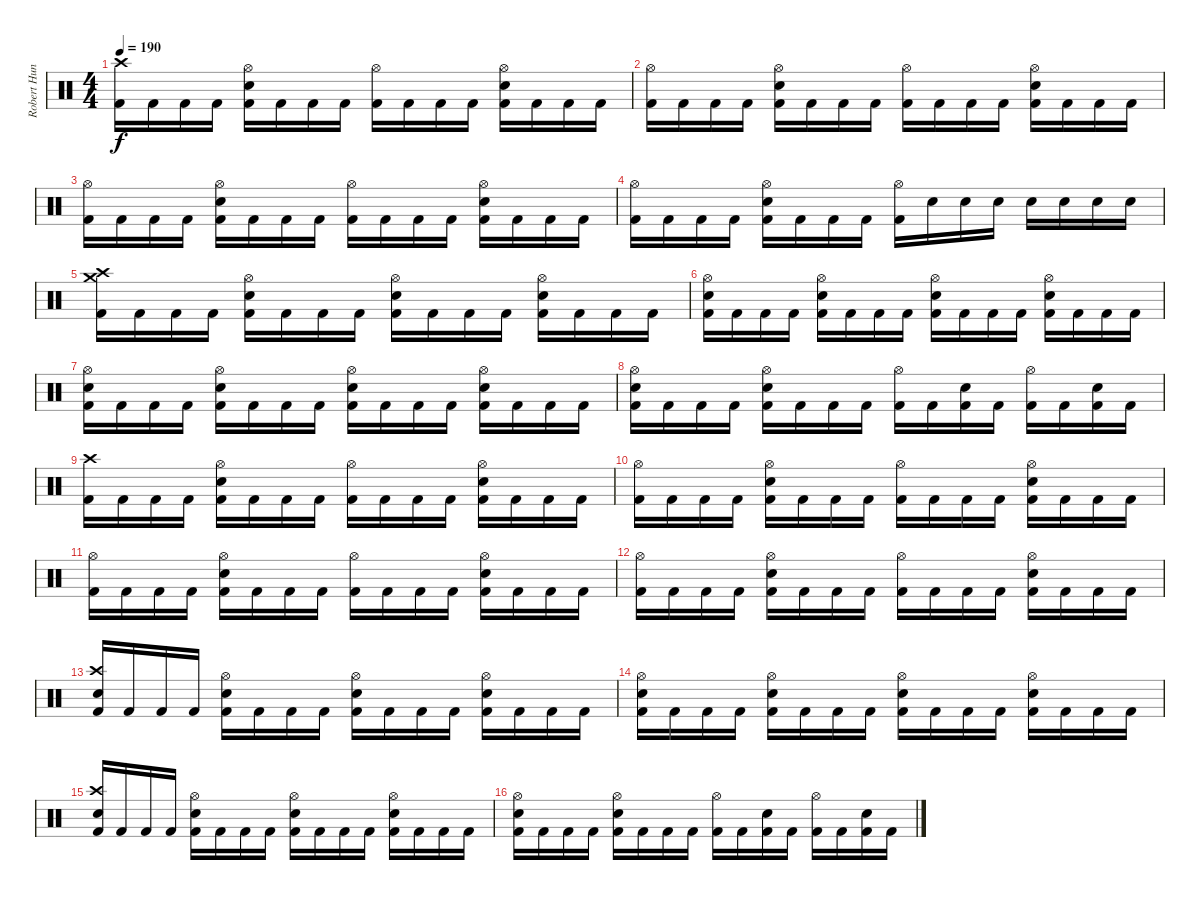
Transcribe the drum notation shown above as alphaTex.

\track ("Robert Hunecke" "Robert Hun") {instrument percussion}
\staff {score}
\articulation defaults
\ts (4 4)
\tempo 190
\clef neutral
\ks c
("Kick (hit) 2" "Crash high (hit)").16{dy f} "Kick (hit) 2".16 "Kick (hit) 2".16 "Kick (hit) 2".16 ("Kick (hit) 2" "Electric Snare (hit)" "Hi-Hat (open)").16 "Kick (hit) 2".16 "Kick (hit) 2".16 "Kick (hit) 2".16 ("Kick (hit) 2" "Hi-Hat (open)").16 "Kick (hit) 2".16 "Kick (hit) 2".16 "Kick (hit) 2".16 ("Kick (hit) 2" "Electric Snare (hit)" "Hi-Hat (open)").16 "Kick (hit) 2".16 "Kick (hit) 2".16 "Kick (hit) 2".16 |
("Kick (hit) 2" "Hi-Hat (open)").16 "Kick (hit) 2".16 "Kick (hit) 2".16 "Kick (hit) 2".16 ("Kick (hit) 2" "Electric Snare (hit)" "Hi-Hat (open)").16 "Kick (hit) 2".16 "Kick (hit) 2".16 "Kick (hit) 2".16 ("Kick (hit) 2" "Hi-Hat (open)").16 "Kick (hit) 2".16 "Kick (hit) 2".16 "Kick (hit) 2".16 ("Kick (hit) 2" "Electric Snare (hit)" "Hi-Hat (open)").16 "Kick (hit) 2".16 "Kick (hit) 2".16 "Kick (hit) 2".16 |
("Kick (hit) 2" "Hi-Hat (open)").16 "Kick (hit) 2".16 "Kick (hit) 2".16 "Kick (hit) 2".16 ("Kick (hit) 2" "Electric Snare (hit)" "Hi-Hat (open)").16 "Kick (hit) 2".16 "Kick (hit) 2".16 "Kick (hit) 2".16 ("Kick (hit) 2" "Hi-Hat (open)").16 "Kick (hit) 2".16 "Kick (hit) 2".16 "Kick (hit) 2".16 ("Kick (hit) 2" "Electric Snare (hit)" "Hi-Hat (open)").16 "Kick (hit) 2".16 "Kick (hit) 2".16 "Kick (hit) 2".16 |
("Kick (hit) 2" "Hi-Hat (open)").16 "Kick (hit) 2".16 "Kick (hit) 2".16 "Kick (hit) 2".16 ("Kick (hit) 2" "Electric Snare (hit)" "Hi-Hat (open)").16 "Kick (hit) 2".16 "Kick (hit) 2".16 "Kick (hit) 2".16 ("Kick (hit) 2" "Hi-Hat (open)").16 "Electric Snare (hit)".16 "Electric Snare (hit)".16 "Electric Snare (hit)".16 "Electric Snare (hit)".16 "Electric Snare (hit)".16 "Electric Snare (hit)".16 "Electric Snare (hit)".16 |
("Kick (hit) 2" "Crash high (hit)" "Crash medium (hit)").16 "Kick (hit) 2".16 "Kick (hit) 2".16 "Kick (hit) 2".16 ("Kick (hit) 2" "Electric Snare (hit)" "Hi-Hat (open)").16 "Kick (hit) 2".16 "Kick (hit) 2".16 "Kick (hit) 2".16 ("Kick (hit) 2" "Electric Snare (hit)" "Hi-Hat (open)").16 "Kick (hit) 2".16 "Kick (hit) 2".16 "Kick (hit) 2".16 ("Kick (hit) 2" "Electric Snare (hit)" "Hi-Hat (open)").16 "Kick (hit) 2".16 "Kick (hit) 2".16 "Kick (hit) 2".16 |
("Kick (hit) 2" "Electric Snare (hit)" "Hi-Hat (open)").16 "Kick (hit) 2".16 "Kick (hit) 2".16 "Kick (hit) 2".16 ("Kick (hit) 2" "Electric Snare (hit)" "Hi-Hat (open)").16 "Kick (hit) 2".16 "Kick (hit) 2".16 "Kick (hit) 2".16 ("Kick (hit) 2" "Electric Snare (hit)" "Hi-Hat (open)").16 "Kick (hit) 2".16 "Kick (hit) 2".16 "Kick (hit) 2".16 ("Kick (hit) 2" "Electric Snare (hit)" "Hi-Hat (open)").16 "Kick (hit) 2".16 "Kick (hit) 2".16 "Kick (hit) 2".16 |
("Kick (hit) 2" "Electric Snare (hit)" "Hi-Hat (open)").16 "Kick (hit) 2".16 "Kick (hit) 2".16 "Kick (hit) 2".16 ("Kick (hit) 2" "Electric Snare (hit)" "Hi-Hat (open)").16 "Kick (hit) 2".16 "Kick (hit) 2".16 "Kick (hit) 2".16 ("Kick (hit) 2" "Electric Snare (hit)" "Hi-Hat (open)").16 "Kick (hit) 2".16 "Kick (hit) 2".16 "Kick (hit) 2".16 ("Kick (hit) 2" "Electric Snare (hit)" "Hi-Hat (open)").16 "Kick (hit) 2".16 "Kick (hit) 2".16 "Kick (hit) 2".16 |
("Kick (hit) 2" "Electric Snare (hit)" "Hi-Hat (open)").16 "Kick (hit) 2".16 "Kick (hit) 2".16 "Kick (hit) 2".16 ("Kick (hit) 2" "Electric Snare (hit)" "Hi-Hat (open)").16 "Kick (hit) 2".16 "Kick (hit) 2".16 "Kick (hit) 2".16 ("Kick (hit) 2" "Hi-Hat (open)").16 "Kick (hit) 2".16 ("Kick (hit) 2" "Electric Snare (hit)").16 "Kick (hit) 2".16 ("Kick (hit) 2" "Hi-Hat (open)").16 "Kick (hit) 2".16 ("Kick (hit) 2" "Electric Snare (hit)").16 "Kick (hit) 2".16 |
("Kick (hit) 2" "Crash high (hit)").16 "Kick (hit) 2".16 "Kick (hit) 2".16 "Kick (hit) 2".16 ("Kick (hit) 2" "Electric Snare (hit)" "Hi-Hat (open)").16 "Kick (hit) 2".16 "Kick (hit) 2".16 "Kick (hit) 2".16 ("Kick (hit) 2" "Hi-Hat (open)").16 "Kick (hit) 2".16 "Kick (hit) 2".16 "Kick (hit) 2".16 ("Kick (hit) 2" "Electric Snare (hit)" "Hi-Hat (open)").16 "Kick (hit) 2".16 "Kick (hit) 2".16 "Kick (hit) 2".16 |
("Kick (hit) 2" "Hi-Hat (open)").16 "Kick (hit) 2".16 "Kick (hit) 2".16 "Kick (hit) 2".16 ("Kick (hit) 2" "Electric Snare (hit)" "Hi-Hat (open)").16 "Kick (hit) 2".16 "Kick (hit) 2".16 "Kick (hit) 2".16 ("Kick (hit) 2" "Hi-Hat (open)").16 "Kick (hit) 2".16 "Kick (hit) 2".16 "Kick (hit) 2".16 ("Kick (hit) 2" "Electric Snare (hit)" "Hi-Hat (open)").16 "Kick (hit) 2".16 "Kick (hit) 2".16 "Kick (hit) 2".16 |
("Kick (hit) 2" "Hi-Hat (open)").16 "Kick (hit) 2".16 "Kick (hit) 2".16 "Kick (hit) 2".16 ("Kick (hit) 2" "Electric Snare (hit)" "Hi-Hat (open)").16 "Kick (hit) 2".16 "Kick (hit) 2".16 "Kick (hit) 2".16 ("Kick (hit) 2" "Hi-Hat (open)").16 "Kick (hit) 2".16 "Kick (hit) 2".16 "Kick (hit) 2".16 ("Kick (hit) 2" "Electric Snare (hit)" "Hi-Hat (open)").16 "Kick (hit) 2".16 "Kick (hit) 2".16 "Kick (hit) 2".16 |
("Kick (hit) 2" "Hi-Hat (open)").16 "Kick (hit) 2".16 "Kick (hit) 2".16 "Kick (hit) 2".16 ("Kick (hit) 2" "Electric Snare (hit)" "Hi-Hat (open)").16 "Kick (hit) 2".16 "Kick (hit) 2".16 "Kick (hit) 2".16 ("Kick (hit) 2" "Hi-Hat (open)").16 "Kick (hit) 2".16 "Kick (hit) 2".16 "Kick (hit) 2".16 ("Kick (hit) 2" "Electric Snare (hit)" "Hi-Hat (open)").16 "Kick (hit) 2".16 "Kick (hit) 2".16 "Kick (hit) 2".16 |
("Kick (hit) 2" "Electric Snare (hit)" "Crash high (hit)").16 "Kick (hit) 2".16 "Kick (hit) 2".16 "Kick (hit) 2".16 ("Kick (hit) 2" "Electric Snare (hit)" "Hi-Hat (open)").16 "Kick (hit) 2".16 "Kick (hit) 2".16 "Kick (hit) 2".16 ("Kick (hit) 2" "Electric Snare (hit)" "Hi-Hat (open)").16 "Kick (hit) 2".16 "Kick (hit) 2".16 "Kick (hit) 2".16 ("Kick (hit) 2" "Electric Snare (hit)" "Hi-Hat (open)").16 "Kick (hit) 2".16 "Kick (hit) 2".16 "Kick (hit) 2".16 |
("Kick (hit) 2" "Electric Snare (hit)" "Hi-Hat (open)").16 "Kick (hit) 2".16 "Kick (hit) 2".16 "Kick (hit) 2".16 ("Kick (hit) 2" "Electric Snare (hit)" "Hi-Hat (open)").16 "Kick (hit) 2".16 "Kick (hit) 2".16 "Kick (hit) 2".16 ("Kick (hit) 2" "Electric Snare (hit)" "Hi-Hat (open)").16 "Kick (hit) 2".16 "Kick (hit) 2".16 "Kick (hit) 2".16 ("Kick (hit) 2" "Electric Snare (hit)" "Hi-Hat (open)").16 "Kick (hit) 2".16 "Kick (hit) 2".16 "Kick (hit) 2".16 |
("Kick (hit) 2" "Electric Snare (hit)" "Crash high (hit)").16 "Kick (hit) 2".16 "Kick (hit) 2".16 "Kick (hit) 2".16 ("Kick (hit) 2" "Electric Snare (hit)" "Hi-Hat (open)").16 "Kick (hit) 2".16 "Kick (hit) 2".16 "Kick (hit) 2".16 ("Kick (hit) 2" "Electric Snare (hit)" "Hi-Hat (open)").16 "Kick (hit) 2".16 "Kick (hit) 2".16 "Kick (hit) 2".16 ("Kick (hit) 2" "Electric Snare (hit)" "Hi-Hat (open)").16 "Kick (hit) 2".16 "Kick (hit) 2".16 "Kick (hit) 2".16 |
("Kick (hit) 2" "Electric Snare (hit)" "Hi-Hat (open)").16 "Kick (hit) 2".16 "Kick (hit) 2".16 "Kick (hit) 2".16 ("Kick (hit) 2" "Electric Snare (hit)" "Hi-Hat (open)").16 "Kick (hit) 2".16 "Kick (hit) 2".16 "Kick (hit) 2".16 ("Kick (hit) 2" "Hi-Hat (open)").16 "Kick (hit) 2".16 ("Kick (hit) 2" "Electric Snare (hit)").16 "Kick (hit) 2".16 ("Kick (hit) 2" "Hi-Hat (open)").16 "Kick (hit) 2".16 ("Kick (hit) 2" "Electric Snare (hit)").16 "Kick (hit) 2".16
